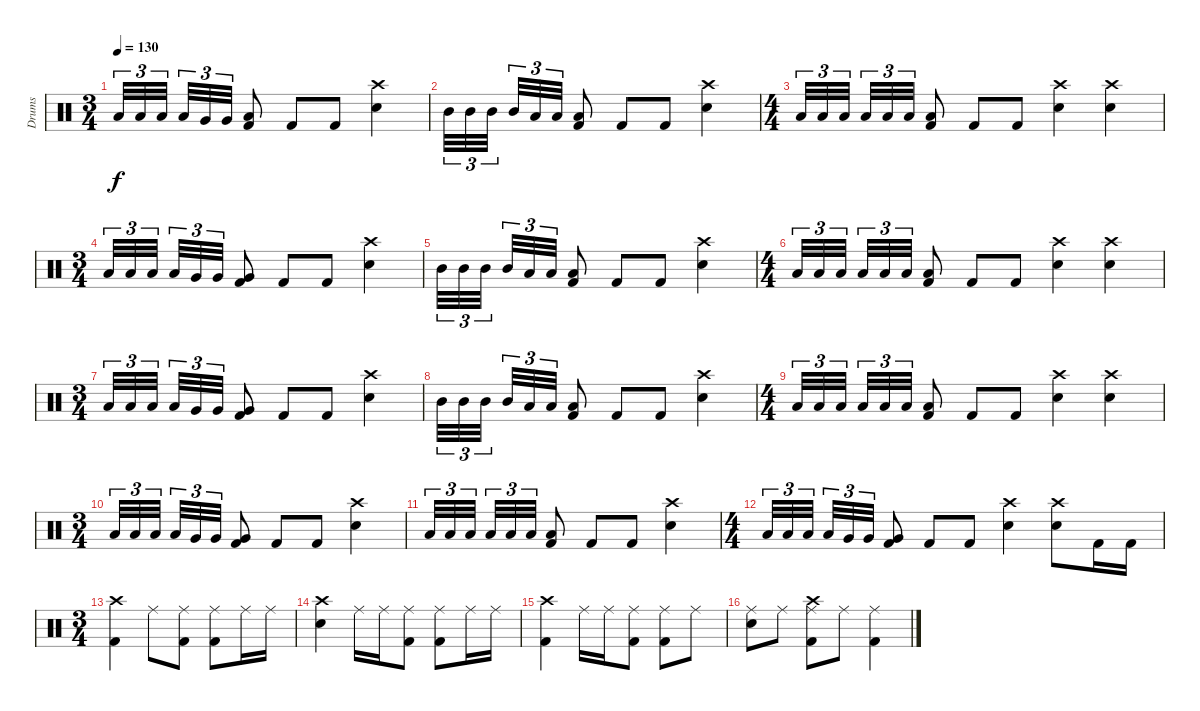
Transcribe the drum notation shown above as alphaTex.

\track ("Drums" "Drums") {instrument percussion}
\staff {score}
\articulation defaults
\ts (3 4)
\tempo 130
\clef neutral
\ks c "Low Floor Tom (hit)".32{tu (3 2) dy f} "Low Floor Tom (hit)".32{tu (3 2)} "Low Floor Tom (hit)".32{tu (3 2)} "Low Floor Tom (hit)".32{tu (3 2)} "Very Low Tom (hit)".32{tu (3 2)} "Very Low Tom (hit)".32{tu (3 2)}
("Low Floor Tom (hit)" "Kick (hit) 2").8 "Kick (hit) 2".8 "Kick (hit) 2".8 ("Crash high (hit)" "Snare (hit) 2").4 |
"Mid Tom (hit)".32{tu (3 2)} "Mid Tom (hit)".32{tu (3 2)} "Mid Tom (hit)".32{tu (3 2)} "Mid Tom (hit)".32{tu (3 2)} "Low Tom (hit)".32{tu (3 2)} "Low Tom (hit)".32{tu (3 2)} ("Low Tom (hit)" "Kick (hit) 2").8 "Kick (hit) 2".8 "Kick (hit) 2".8 ("Crash high (hit)" "Snare (hit) 2").4 |
\ts (4 4)
"Low Floor Tom (hit)".32{tu (3 2)} "Low Floor Tom (hit)".32{tu (3 2)} "Low Floor Tom (hit)".32{tu (3 2)} "Low Floor Tom (hit)".32{tu (3 2)} "Low Floor Tom (hit)".32{tu (3 2)} "Low Floor Tom (hit)".32{tu (3 2)} ("Low Floor Tom (hit)" "Kick (hit) 2").8 "Kick (hit) 2".8 "Kick (hit) 2".8 ("Crash high (hit)" "Snare (hit) 2").4 ("Crash high (hit)" "Snare (hit) 2").4 |
\ts (3 4)
"Low Floor Tom (hit)".32{tu (3 2)} "Low Floor Tom (hit)".32{tu (3 2)} "Low Floor Tom (hit)".32{tu (3 2)} "Low Floor Tom (hit)".32{tu (3 2)} "Very Low Tom (hit)".32{tu (3 2)} "Very Low Tom (hit)".32{tu (3 2)} ("Very Low Tom (hit)" "Kick (hit) 2").8 "Kick (hit) 2".8 "Kick (hit) 2".8 ("Crash high (hit)" "Snare (hit) 2").4 |
"Mid Tom (hit)".32{tu (3 2)} "Mid Tom (hit)".32{tu (3 2)} "Mid Tom (hit)".32{tu (3 2)} "Mid Tom (hit)".32{tu (3 2)} "Low Tom (hit)".32{tu (3 2)} "Low Tom (hit)".32{tu (3 2)} ("Low Tom (hit)" "Kick (hit) 2").8 "Kick (hit) 2".8 "Kick (hit) 2".8 ("Crash high (hit)" "Snare (hit) 2").4 |
\ts (4 4)
"Low Tom (hit)".32{tu (3 2)} "Low Tom (hit)".32{tu (3 2)} "Low Tom (hit)".32{tu (3 2)} "Low Tom (hit)".32{tu (3 2)} "Low Floor Tom (hit)".32{tu (3 2)} "Low Floor Tom (hit)".32{tu (3 2)} ("Low Floor Tom (hit)" "Kick (hit) 2").8 "Kick (hit) 2".8 "Kick (hit) 2".8 ("Crash high (hit)" "Snare (hit) 2").4 ("Crash high (hit)" "Snare (hit) 2").4 |
\ts (3 4)
"Low Floor Tom (hit)".32{tu (3 2)} "Low Floor Tom (hit)".32{tu (3 2)} "Low Floor Tom (hit)".32{tu (3 2)} "Low Floor Tom (hit)".32{tu (3 2)} "Very Low Tom (hit)".32{tu (3 2)} "Very Low Tom (hit)".32{tu (3 2)} ("Very Low Tom (hit)" "Kick (hit) 2").8 "Kick (hit) 2".8 "Kick (hit) 2".8 ("Crash high (hit)" "Snare (hit) 2").4 |
"Mid Tom (hit)".32{tu (3 2)} "Mid Tom (hit)".32{tu (3 2)} "Mid Tom (hit)".32{tu (3 2)} "Mid Tom (hit)".32{tu (3 2)} "Low Tom (hit)".32{tu (3 2)} "Low Tom (hit)".32{tu (3 2)} ("Low Tom (hit)" "Kick (hit) 2").8 "Kick (hit) 2".8 "Kick (hit) 2".8 ("Crash high (hit)" "Snare (hit) 2").4 |
\ts (4 4)
"Low Tom (hit)".32{tu (3 2)} "Low Tom (hit)".32{tu (3 2)} "Low Tom (hit)".32{tu (3 2)} "Low Tom (hit)".32{tu (3 2)} "Low Floor Tom (hit)".32{tu (3 2)} "Low Floor Tom (hit)".32{tu (3 2)} ("Low Floor Tom (hit)" "Kick (hit) 2").8 "Kick (hit) 2".8 "Kick (hit) 2".8 ("Crash high (hit)" "Snare (hit) 2").4 ("Crash high (hit)" "Snare (hit) 2").4 |
\ts (3 4)
"Low Floor Tom (hit)".32{tu (3 2)} "Low Floor Tom (hit)".32{tu (3 2)} "Low Floor Tom (hit)".32{tu (3 2)} "Low Floor Tom (hit)".32{tu (3 2)} "Very Low Tom (hit)".32{tu (3 2)} "Very Low Tom (hit)".32{tu (3 2)} ("Very Low Tom (hit)" "Kick (hit) 2").8 "Kick (hit) 2".8 "Kick (hit) 2".8 ("Crash high (hit)" "Snare (hit) 2").4 |
"Low Tom (hit)".32{tu (3 2)} "Low Tom (hit)".32{tu (3 2)} "Low Tom (hit)".32{tu (3 2)} "Low Tom (hit)".32{tu (3 2)} "Low Floor Tom (hit)".32{tu (3 2)} "Low Floor Tom (hit)".32{tu (3 2)} ("Low Floor Tom (hit)" "Kick (hit) 2").8 "Kick (hit) 2".8 "Kick (hit) 2".8 ("Crash high (hit)" "Snare (hit) 2").4 |
\ts (4 4)
"Low Floor Tom (hit)".32{tu (3 2)} "Low Floor Tom (hit)".32{tu (3 2)} "Low Floor Tom (hit)".32{tu (3 2)} "Low Floor Tom (hit)".32{tu (3 2)} "Very Low Tom (hit)".32{tu (3 2)} "Very Low Tom (hit)".32{tu (3 2)} ("Very Low Tom (hit)" "Kick (hit) 2").8 "Kick (hit) 2".8 "Kick (hit) 2".8 ("Crash high (hit)" "Snare (hit) 2").4 ("Crash high (hit)" "Snare (hit) 2").8 "Kick (hit) 2".16 "Kick (hit) 2".16 |
\ts (3 4)
("Crash high (hit)" "Kick (hit) 2").4 "Ride (middle)".8 ("Ride (middle)" "Kick (hit) 2").8 ("Ride (middle)" "Kick (hit) 2").8 "Ride (middle)".16 "Ride (middle)".16 |
("Crash high (hit)" "Snare (hit) 2").4 "Ride (middle)".16 "Ride (middle)".16 ("Ride (middle)" "Kick (hit) 2").8 ("Ride (middle)" "Kick (hit) 2").8 "Ride (middle)".16 "Ride (middle)".16 |
("Crash high (hit)" "Kick (hit) 2").4 "Ride (middle)".16 "Ride (middle)".16 ("Ride (middle)" "Kick (hit) 2").8 ("Ride (middle)" "Kick (hit) 2").8 "Ride (middle)".8 |
("Ride (middle)" "Snare (hit) 2").8 "Ride (middle)".8 ("Crash high (hit)" "Ride (middle)" "Kick (hit) 2").8 "Ride (middle)".8 ("Ride (middle)" "Kick (hit) 2").4
